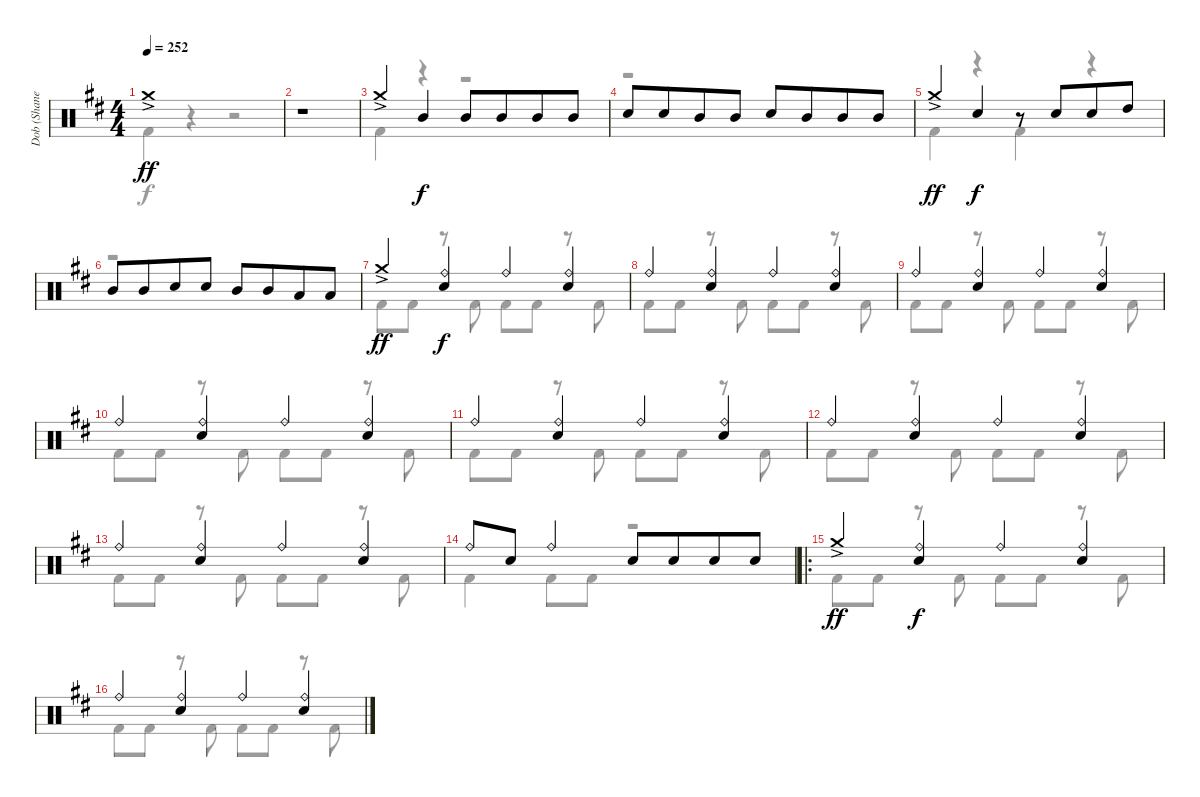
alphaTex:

\track ("Dob (Shane Gaalaas)" "Dob (Shane") {instrument percussion}
\staff {score}
\articulation defaults
\voice
\ts (4 4)
\tempo 252
\clef neutral
\ks d "Crash medium (hit)"{ac}.1{dy ff}
|
r.1 |
"Crash medium (hit)"{ac}.4 "Mid Tom (hit)".4{dy f} "Mid Tom (hit)".8 "Mid Tom (hit)".8{beam merge} "Mid Tom (hit)".8 "Mid Tom (hit)".8 |
"Electric Snare (hit)".8 "Electric Snare (hit)".8{beam merge} "Mid Tom (hit)".8 "Mid Tom (hit)".8 "Electric Snare (hit)".8 "Mid Tom (hit)".8{beam merge} "Mid Tom (hit)".8 "Mid Tom (hit)".8 |
"Crash medium (hit)"{ac}.4{dy ff} "Electric Snare (hit)".4{dy f} r.8 "Electric Snare (hit)".8{beam merge} "Electric Snare (hit)".8 "High Tom (hit)".8 |
"Mid Tom (hit)".8 "Mid Tom (hit)".8{beam merge} "Electric Snare (hit)".8 "Electric Snare (hit)".8 "Mid Tom (hit)".8 "Mid Tom (hit)".8{beam merge} "Low Tom (hit)".8 "Low Tom (hit)".8 |
"Crash medium (hit)"{ac}.4{dy ff} ("Ride (bell)" "Electric Snare (hit)").4{dy f} "Ride (bell)".4 ("Ride (bell)" "Electric Snare (hit)").4 |
"Ride (bell)".4 ("Ride (bell)" "Electric Snare (hit)").4 "Ride (bell)".4 ("Ride (bell)" "Electric Snare (hit)").4 |
"Ride (bell)".4 ("Ride (bell)" "Electric Snare (hit)").4 "Ride (bell)".4 ("Ride (bell)" "Electric Snare (hit)").4 |
"Ride (bell)".4 ("Ride (bell)" "Electric Snare (hit)").4 "Ride (bell)".4 ("Ride (bell)" "Electric Snare (hit)").4 |
"Ride (bell)".4 ("Ride (bell)" "Electric Snare (hit)").4 "Ride (bell)".4 ("Ride (bell)" "Electric Snare (hit)").4 |
"Ride (bell)".4 ("Ride (bell)" "Electric Snare (hit)").4 "Ride (bell)".4 ("Ride (bell)" "Electric Snare (hit)").4 |
"Ride (bell)".4 ("Ride (bell)" "Electric Snare (hit)").4 "Ride (bell)".4 ("Ride (bell)" "Electric Snare (hit)").4 |
"Ride (bell)".8 "Electric Snare (hit)".8 "Ride (bell)".4 "Electric Snare (hit)".8 "Electric Snare (hit)".8{beam merge} "Electric Snare (hit)".8 "Electric Snare (hit)".8 |
\ro "Crash medium (hit)"{ac}.4{dy ff}
("Ride (bell)" "Electric Snare (hit)").4{dy f} "Ride (bell)".4 ("Ride (bell)" "Electric Snare (hit)").4 |
"Ride (bell)".4 ("Ride (bell)" "Electric Snare (hit)").4 "Ride (bell)".4 ("Ride (bell)" "Electric Snare (hit)").4
\voice
\clef neutral
\ottava regular
\simile none
\ks d "Kick (hit) 2".4{dy f}
r.4 r.2 |
r.1 |
"Kick (hit) 2".4 r.4 r.2 |
r.1 |
"Kick (hit) 2".4 r.4 "Kick (hit) 2".4 r.4 |
r.1 |
"Kick (hit) 2".8 "Kick (hit) 2".8 r.8 "Kick (hit) 2".8 "Kick (hit) 2".8 "Kick (hit) 2".8 r.8 "Kick (hit) 2".8 |
"Kick (hit) 2".8 "Kick (hit) 2".8 r.8 "Kick (hit) 2".8 "Kick (hit) 2".8 "Kick (hit) 2".8 r.8 "Kick (hit) 2".8 |
"Kick (hit) 2".8 "Kick (hit) 2".8 r.8 "Kick (hit) 2".8 "Kick (hit) 2".8 "Kick (hit) 2".8 r.8 "Kick (hit) 2".8 |
"Kick (hit) 2".8 "Kick (hit) 2".8 r.8 "Kick (hit) 2".8 "Kick (hit) 2".8 "Kick (hit) 2".8 r.8 "Kick (hit) 2".8 |
"Kick (hit) 2".8 "Kick (hit) 2".8 r.8 "Kick (hit) 2".8 "Kick (hit) 2".8 "Kick (hit) 2".8 r.8 "Kick (hit) 2".8 |
"Kick (hit) 2".8 "Kick (hit) 2".8 r.8 "Kick (hit) 2".8 "Kick (hit) 2".8 "Kick (hit) 2".8 r.8 "Kick (hit) 2".8 |
"Kick (hit) 2".8 "Kick (hit) 2".8 r.8 "Kick (hit) 2".8 "Kick (hit) 2".8 "Kick (hit) 2".8 r.8 "Kick (hit) 2".8 |
"Kick (hit) 2".4 "Kick (hit) 2".8 "Kick (hit) 2".8 r.2 |
"Kick (hit) 2".8 "Kick (hit) 2".8 r.8 "Kick (hit) 2".8 "Kick (hit) 2".8 "Kick (hit) 2".8 r.8 "Kick (hit) 2".8 |
"Kick (hit) 2".8 "Kick (hit) 2".8 r.8 "Kick (hit) 2".8 "Kick (hit) 2".8 "Kick (hit) 2".8 r.8 "Kick (hit) 2".8
